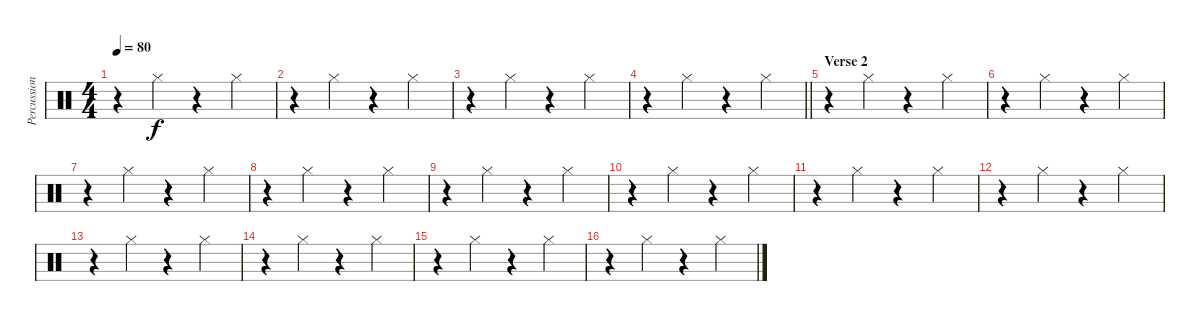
\track ("Percussion" "Percussion") {instrument percussion}
\staff {score}
\articulation defaults
\ts (4 4)
\tempo 80
\clef neutral
\ks c
r.4{dy f} "Hi-Hat (closed)".4 r.4 "Hi-Hat (closed)".4 |
r.4 "Hi-Hat (closed)".4 r.4 "Hi-Hat (closed)".4 |
r.4 "Hi-Hat (closed)".4 r.4 "Hi-Hat (closed)".4 |
\barLineRight lightlight
r.4 "Hi-Hat (closed)".4 r.4 "Hi-Hat (closed)".4 |
\section ("" "Verse 2")
r.4 "Hi-Hat (closed)".4 r.4 "Hi-Hat (closed)".4 |
r.4 "Hi-Hat (closed)".4 r.4 "Hi-Hat (closed)".4 |
r.4 "Hi-Hat (closed)".4 r.4 "Hi-Hat (closed)".4 |
r.4 "Hi-Hat (closed)".4 r.4 "Hi-Hat (closed)".4 |
r.4 "Hi-Hat (closed)".4 r.4 "Hi-Hat (closed)".4 |
r.4 "Hi-Hat (closed)".4 r.4 "Hi-Hat (closed)".4 |
r.4 "Hi-Hat (closed)".4 r.4 "Hi-Hat (closed)".4 |
r.4 "Hi-Hat (closed)".4 r.4 "Hi-Hat (closed)".4 |
r.4 "Hi-Hat (closed)".4 r.4 "Hi-Hat (closed)".4 |
r.4 "Hi-Hat (closed)".4 r.4 "Hi-Hat (closed)".4 |
r.4 "Hi-Hat (closed)".4 r.4 "Hi-Hat (closed)".4 |
r.4 "Hi-Hat (closed)".4 r.4 "Hi-Hat (closed)".4
